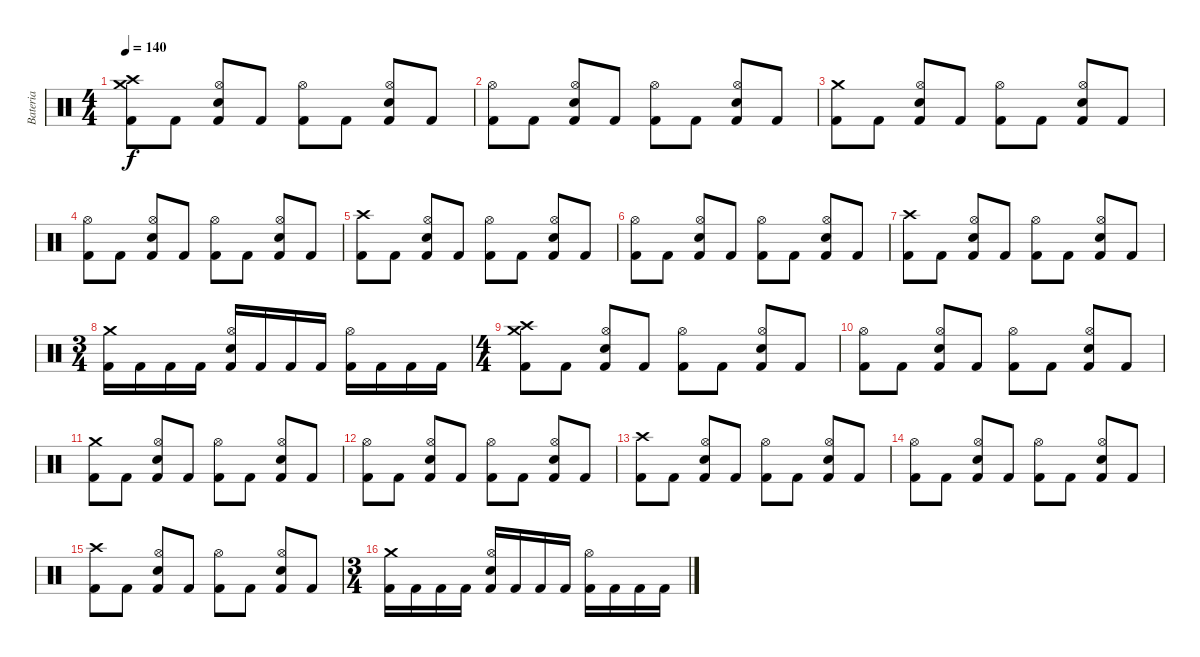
\track ("Bateria" "Bateria") {instrument percussion}
\staff {score}
\articulation defaults
\ts (4 4)
\tempo 140
\clef neutral
\ks c
("Crash high (hit)" "Crash medium (hit)" "Kick (hit) 2").8{dy f} "Kick (hit) 2".8 ("Hi-Hat (open)" "Snare (hit) 2" "Kick (hit) 2").8 "Kick (hit) 2".8 ("Hi-Hat (open)" "Kick (hit) 2").8 "Kick (hit) 2".8 ("Hi-Hat (open)" "Snare (hit) 2" "Kick (hit) 2").8 "Kick (hit) 2".8 |
("Hi-Hat (open)" "Kick (hit) 2").8 "Kick (hit) 2".8 ("Hi-Hat (open)" "Snare (hit) 2" "Kick (hit) 2").8 "Kick (hit) 2".8 ("Hi-Hat (open)" "Kick (hit) 2").8 "Kick (hit) 2".8 ("Hi-Hat (open)" "Snare (hit) 2" "Kick (hit) 2").8 "Kick (hit) 2".8 |
("Crash medium (hit)" "Kick (hit) 2").8 "Kick (hit) 2".8 ("Hi-Hat (open)" "Snare (hit) 2" "Kick (hit) 2").8 "Kick (hit) 2".8 ("Hi-Hat (open)" "Kick (hit) 2").8 "Kick (hit) 2".8 ("Hi-Hat (open)" "Snare (hit) 2" "Kick (hit) 2").8 "Kick (hit) 2".8 |
("Hi-Hat (open)" "Kick (hit) 2").8 "Kick (hit) 2".8 ("Hi-Hat (open)" "Snare (hit) 2" "Kick (hit) 2").8 "Kick (hit) 2".8 ("Hi-Hat (open)" "Kick (hit) 2").8 "Kick (hit) 2".8 ("Hi-Hat (open)" "Snare (hit) 2" "Kick (hit) 2").8 "Kick (hit) 2".8 |
("Crash high (hit)" "Kick (hit) 2").8 "Kick (hit) 2".8 ("Hi-Hat (open)" "Snare (hit) 2" "Kick (hit) 2").8 "Kick (hit) 2".8 ("Hi-Hat (open)" "Kick (hit) 2").8 "Kick (hit) 2".8 ("Hi-Hat (open)" "Snare (hit) 2" "Kick (hit) 2").8 "Kick (hit) 2".8 |
("Hi-Hat (open)" "Kick (hit) 2").8 "Kick (hit) 2".8 ("Hi-Hat (open)" "Snare (hit) 2" "Kick (hit) 2").8 "Kick (hit) 2".8 ("Hi-Hat (open)" "Kick (hit) 2").8 "Kick (hit) 2".8 ("Hi-Hat (open)" "Snare (hit) 2" "Kick (hit) 2").8 "Kick (hit) 2".8 |
("Crash high (hit)" "Kick (hit) 2").8 "Kick (hit) 2".8 ("Hi-Hat (open)" "Snare (hit) 2" "Kick (hit) 2").8 "Kick (hit) 2".8 ("Hi-Hat (open)" "Kick (hit) 2").8 "Kick (hit) 2".8 ("Hi-Hat (open)" "Snare (hit) 2" "Kick (hit) 2").8 "Kick (hit) 2".8 |
\ts (3 4)
("Crash medium (hit)" "Kick (hit) 2").16 "Kick (hit) 2".16 "Kick (hit) 2".16 "Kick (hit) 2".16 ("Hi-Hat (open)" "Snare (hit) 2" "Kick (hit) 2").16 "Kick (hit) 2".16 "Kick (hit) 2".16 "Kick (hit) 2".16 ("Hi-Hat (open)" "Kick (hit) 2").16 "Kick (hit) 2".16 "Kick (hit) 2".16 "Kick (hit) 2".16 |
\ts (4 4)
("Crash high (hit)" "Crash medium (hit)" "Kick (hit) 2").8 "Kick (hit) 2".8 ("Hi-Hat (open)" "Snare (hit) 2" "Kick (hit) 2").8 "Kick (hit) 2".8 ("Hi-Hat (open)" "Kick (hit) 2").8 "Kick (hit) 2".8 ("Hi-Hat (open)" "Snare (hit) 2" "Kick (hit) 2").8 "Kick (hit) 2".8 |
("Hi-Hat (open)" "Kick (hit) 2").8 "Kick (hit) 2".8 ("Hi-Hat (open)" "Snare (hit) 2" "Kick (hit) 2").8 "Kick (hit) 2".8 ("Hi-Hat (open)" "Kick (hit) 2").8 "Kick (hit) 2".8 ("Hi-Hat (open)" "Snare (hit) 2" "Kick (hit) 2").8 "Kick (hit) 2".8 |
("Crash medium (hit)" "Kick (hit) 2").8 "Kick (hit) 2".8 ("Hi-Hat (open)" "Snare (hit) 2" "Kick (hit) 2").8 "Kick (hit) 2".8 ("Hi-Hat (open)" "Kick (hit) 2").8 "Kick (hit) 2".8 ("Hi-Hat (open)" "Snare (hit) 2" "Kick (hit) 2").8 "Kick (hit) 2".8 |
("Hi-Hat (open)" "Kick (hit) 2").8 "Kick (hit) 2".8 ("Hi-Hat (open)" "Snare (hit) 2" "Kick (hit) 2").8 "Kick (hit) 2".8 ("Hi-Hat (open)" "Kick (hit) 2").8 "Kick (hit) 2".8 ("Hi-Hat (open)" "Snare (hit) 2" "Kick (hit) 2").8 "Kick (hit) 2".8 |
("Crash high (hit)" "Kick (hit) 2").8 "Kick (hit) 2".8 ("Hi-Hat (open)" "Snare (hit) 2" "Kick (hit) 2").8 "Kick (hit) 2".8 ("Hi-Hat (open)" "Kick (hit) 2").8 "Kick (hit) 2".8 ("Hi-Hat (open)" "Snare (hit) 2" "Kick (hit) 2").8 "Kick (hit) 2".8 |
("Hi-Hat (open)" "Kick (hit) 2").8 "Kick (hit) 2".8 ("Hi-Hat (open)" "Snare (hit) 2" "Kick (hit) 2").8 "Kick (hit) 2".8 ("Hi-Hat (open)" "Kick (hit) 2").8 "Kick (hit) 2".8 ("Hi-Hat (open)" "Snare (hit) 2" "Kick (hit) 2").8 "Kick (hit) 2".8 |
("Crash high (hit)" "Kick (hit) 2").8 "Kick (hit) 2".8 ("Hi-Hat (open)" "Snare (hit) 2" "Kick (hit) 2").8 "Kick (hit) 2".8 ("Hi-Hat (open)" "Kick (hit) 2").8 "Kick (hit) 2".8 ("Hi-Hat (open)" "Snare (hit) 2" "Kick (hit) 2").8 "Kick (hit) 2".8 |
\ts (3 4)
("Crash medium (hit)" "Kick (hit) 2").16 "Kick (hit) 2".16 "Kick (hit) 2".16 "Kick (hit) 2".16 ("Hi-Hat (open)" "Snare (hit) 2" "Kick (hit) 2").16 "Kick (hit) 2".16 "Kick (hit) 2".16 "Kick (hit) 2".16 ("Hi-Hat (open)" "Kick (hit) 2").16 "Kick (hit) 2".16 "Kick (hit) 2".16 "Kick (hit) 2".16
